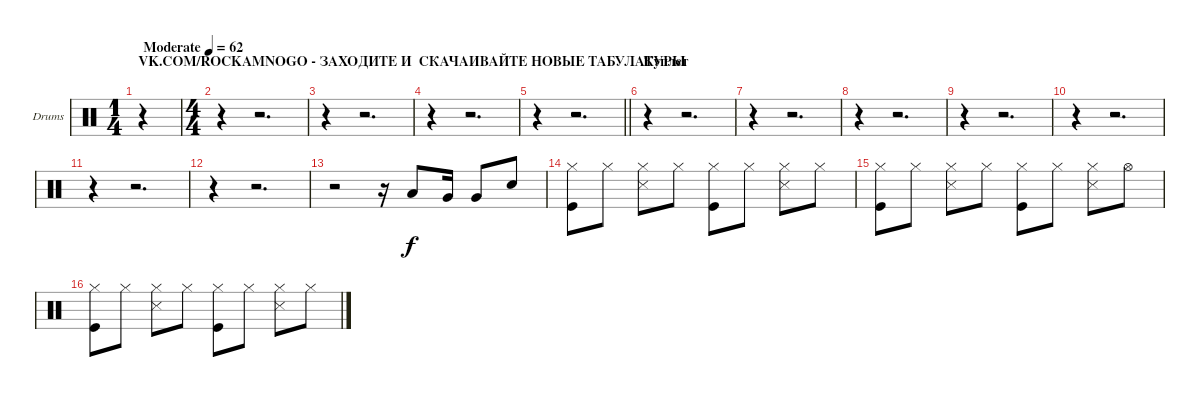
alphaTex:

\bracketExtendMode groupsimilarinstruments
\firstSystemTrackNameOrientation horizontal
\otherSystemsTrackNameOrientation horizontal
\track ("Drumkit" "Drums") {instrument percussion}
\staff {score}
\articulation defaults
\voice
\ts (1 4)
\beaming (8 2)
\section ("" "VK.COM/ROCKAMNOGO - ЗАХОДИТЕ И  СКАЧАИВАЙТЕ НОВЫЕ ТАБУЛАТУРЫ")
\tempo (62 "Moderate")
\clef neutral
\ks c
r.4{dy f} |
\ts (4 4)
\beaming (8 2 2 2 2)
r.4 r.2{d} |
r.4 r.2{d} |
r.4 r.2{d} |
\barLineRight lightlight
r.4 r.2{d} |
\section ("" "Куплет")
r.4 r.2{d} |
r.4 r.2{d} |
r.4 r.2{d} |
r.4 r.2{d} |
r.4 r.2{d} |
r.4 r.2{d} |
r.4 r.2{d} |
r.2 r.16 "Low Tom (hit)".8 "Very Low Tom (hit)".16 "Very Low Tom (hit)".8 "Snare (hit) 2".8 |
("Kick (hit)" "Hi-Hat (closed)").8 "Hi-Hat (closed)".8 ("Snare (side stick) 3" "Hi-Hat (closed)").8 "Hi-Hat (closed)".8 ("Kick (hit)" "Hi-Hat (closed)").8 "Hi-Hat (closed)".8 ("Snare (side stick) 3" "Hi-Hat (closed)").8 "Hi-Hat (closed)".8 |
("Kick (hit)" "Hi-Hat (closed)").8 "Hi-Hat (closed)".8 ("Snare (side stick) 3" "Hi-Hat (closed)").8 "Hi-Hat (closed)".8 ("Kick (hit)" "Hi-Hat (closed)").8 "Hi-Hat (closed)".8 ("Snare (side stick) 3" "Hi-Hat (closed)").8 "Hi-Hat (open)".8 |
("Kick (hit)" "Hi-Hat (closed)").8 "Hi-Hat (closed)".8 ("Snare (side stick) 3" "Hi-Hat (closed)").8 "Hi-Hat (closed)".8 ("Kick (hit)" "Hi-Hat (closed)").8 "Hi-Hat (closed)".8 ("Snare (side stick) 3" "Hi-Hat (closed)").8 "Hi-Hat (closed)".8
\voice
\clef neutral
\ottava regular
\simile none
\ks c
r.4{dy mf} |
|
|
|
\barLineRight lightlight
|
|
|
|
|
|
|
|
|
|
|
